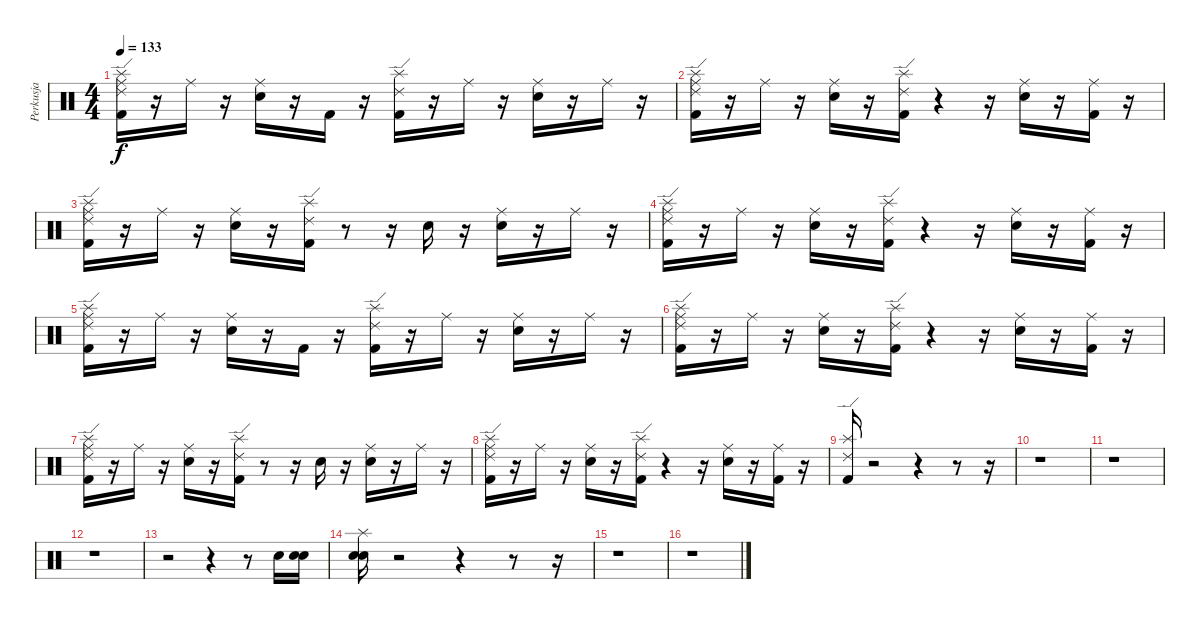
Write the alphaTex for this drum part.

\track ("Perkusja" "Perkusja") {instrument percussion}
\staff {score}
\articulation defaults
\ts (4 4)
\tempo 133
\clef neutral
\ks c
("Ride (middle)" "Ride (edge) 2" "Splash (hit)" "Kick (hit) 2").16{dy f} r.16 "Ride (middle)".16 r.16 ("Ride (middle)" "Snare (hit) 2").16 r.16 "Kick (hit) 2".16 r.16 ("Ride (edge) 2" "Splash (hit)" "Kick (hit) 2").16 r.16 "Ride (middle)".16 r.16 ("Ride (middle)" "Snare (hit) 2").16 r.16 "Ride (middle)".16 r.16 |
("Ride (middle)" "Ride (edge) 2" "Splash (hit)" "Kick (hit) 2").16 r.16 "Ride (middle)".16 r.16 ("Ride (middle)" "Snare (hit) 2").16 r.16 ("Splash (hit)" "Ride (edge) 2" "Kick (hit) 2").16 r.4 r.16 ("Ride (middle)" "Snare (hit) 2").16 r.16 ("Ride (middle)" "Kick (hit) 2").16 r.16 |
("Ride (middle)" "Ride (edge) 2" "Splash (hit)" "Kick (hit) 2").16 r.16 "Ride (middle)".16 r.16 ("Ride (middle)" "Snare (hit) 2").16 r.16 ("Splash (hit)" "Ride (edge) 2" "Kick (hit) 2").16 r.8 r.16 "Snare (hit) 2".16 r.16 ("Ride (middle)" "Snare (hit) 2").16 r.16 "Ride (middle)".16 r.16 |
("Ride (middle)" "Ride (edge) 2" "Splash (hit)" "Kick (hit) 2").16 r.16 "Ride (middle)".16 r.16 ("Ride (middle)" "Snare (hit) 2").16 r.16 ("Splash (hit)" "Ride (edge) 2" "Kick (hit) 2").16 r.4 r.16 ("Ride (middle)" "Snare (hit) 2").16 r.16 ("Ride (middle)" "Kick (hit) 2").16 r.16 |
("Ride (middle)" "Ride (edge) 2" "Splash (hit)" "Kick (hit) 2").16 r.16 "Ride (middle)".16 r.16 ("Ride (middle)" "Snare (hit) 2").16 r.16 "Kick (hit) 2".16 r.16 ("Ride (edge) 2" "Splash (hit)" "Kick (hit) 2").16 r.16 "Ride (middle)".16 r.16 ("Ride (middle)" "Snare (hit) 2").16 r.16 "Ride (middle)".16 r.16 |
("Ride (middle)" "Ride (edge) 2" "Splash (hit)" "Kick (hit) 2").16 r.16 "Ride (middle)".16 r.16 ("Ride (middle)" "Snare (hit) 2").16 r.16 ("Splash (hit)" "Ride (edge) 2" "Kick (hit) 2").16 r.4 r.16 ("Ride (middle)" "Snare (hit) 2").16 r.16 ("Ride (middle)" "Kick (hit) 2").16 r.16 |
("Ride (middle)" "Ride (edge) 2" "Splash (hit)" "Kick (hit) 2").16 r.16 "Ride (middle)".16 r.16 ("Ride (middle)" "Snare (hit) 2").16 r.16 ("Splash (hit)" "Ride (edge) 2" "Kick (hit) 2").16 r.8 r.16 "Snare (hit) 2".16 r.16 ("Ride (middle)" "Snare (hit) 2").16 r.16 "Ride (middle)".16 r.16 |
("Ride (middle)" "Ride (edge) 2" "Splash (hit)" "Kick (hit) 2").16 r.16 "Ride (middle)".16 r.16 ("Ride (middle)" "Snare (hit) 2").16 r.16 ("Splash (hit)" "Ride (edge) 2" "Kick (hit) 2").16 r.4 r.16 ("Ride (middle)" "Snare (hit) 2").16 r.16 ("Ride (middle)" "Kick (hit) 2").16 r.16 |
("Ride (edge) 2" "Splash (hit)" "Kick (hit) 2").16 r.2 r.4 r.8 r.16 |
r.1 |
r.1 |
r.1 |
r.2 r.4 r.8 "Snare (hit) 2".16 ("Snare (hit)" "Snare (hit) 2").16 |
("Snare (hit)" "Splash (hit)" "Snare (hit) 2").16 r.2 r.4 r.8 r.16 |
r.1 |
r.1
